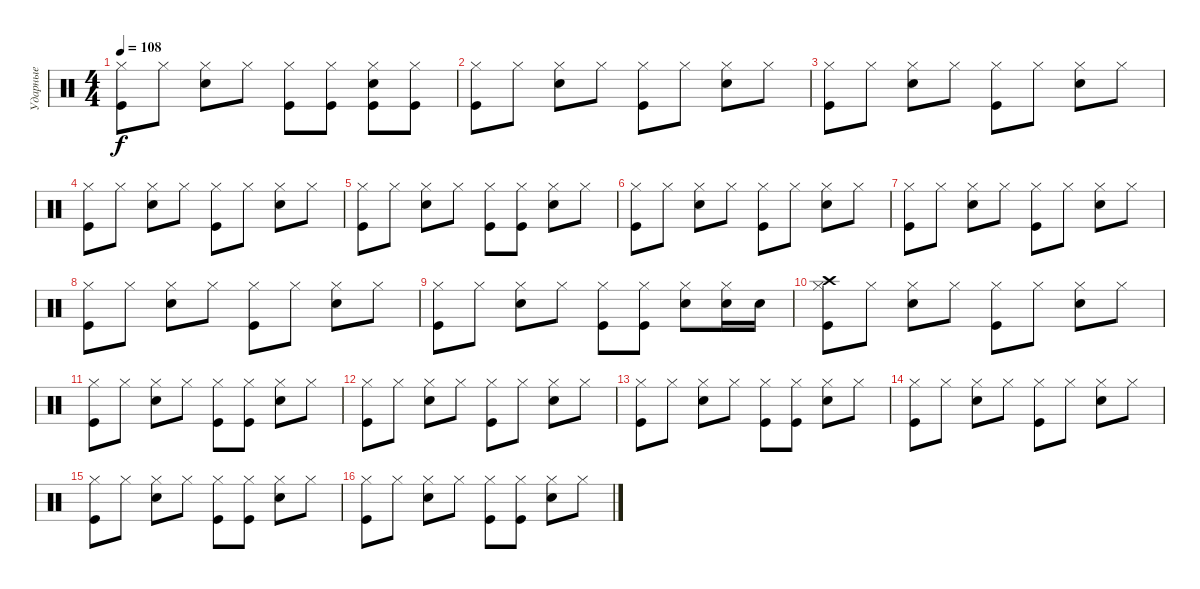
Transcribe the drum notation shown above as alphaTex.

\track ("Ударные" "Ударные") {instrument percussion}
\staff {score}
\articulation defaults
\ts (4 4)
\tempo 108
\clef neutral
\ks c
("Hi-Hat (closed)" "Kick (hit)").8{dy f} "Hi-Hat (closed)".8 ("Hi-Hat (closed)" "Snare (hit) 2").8 "Hi-Hat (closed)".8 ("Hi-Hat (closed)" "Kick (hit)").8 ("Hi-Hat (closed)" "Kick (hit)").8 ("Hi-Hat (closed)" "Snare (hit) 2" "Kick (hit)").8 ("Hi-Hat (closed)" "Kick (hit)").8 |
("Hi-Hat (closed)" "Kick (hit)").8 "Hi-Hat (closed)".8 ("Hi-Hat (closed)" "Snare (hit) 2").8 "Hi-Hat (closed)".8 ("Hi-Hat (closed)" "Kick (hit)").8 "Hi-Hat (closed)".8 ("Hi-Hat (closed)" "Snare (hit) 2").8 "Hi-Hat (closed)".8 |
("Hi-Hat (closed)" "Kick (hit)").8 "Hi-Hat (closed)".8 ("Hi-Hat (closed)" "Snare (hit) 2").8 "Hi-Hat (closed)".8 ("Hi-Hat (closed)" "Kick (hit)").8 "Hi-Hat (closed)".8 ("Hi-Hat (closed)" "Snare (hit) 2").8 "Hi-Hat (closed)".8 |
("Hi-Hat (closed)" "Kick (hit)").8 "Hi-Hat (closed)".8 ("Hi-Hat (closed)" "Snare (hit) 2").8 "Hi-Hat (closed)".8 ("Hi-Hat (closed)" "Kick (hit)").8 "Hi-Hat (closed)".8 ("Hi-Hat (closed)" "Snare (hit) 2").8 "Hi-Hat (closed)".8 |
("Hi-Hat (closed)" "Kick (hit)").8 "Hi-Hat (closed)".8 ("Hi-Hat (closed)" "Snare (hit) 2").8 "Hi-Hat (closed)".8 ("Hi-Hat (closed)" "Kick (hit)").8 ("Hi-Hat (closed)" "Kick (hit)").8 ("Hi-Hat (closed)" "Snare (hit) 2").8 "Hi-Hat (closed)".8 |
("Hi-Hat (closed)" "Kick (hit)").8 "Hi-Hat (closed)".8 ("Hi-Hat (closed)" "Snare (hit) 2").8 "Hi-Hat (closed)".8 ("Hi-Hat (closed)" "Kick (hit)").8 "Hi-Hat (closed)".8 ("Hi-Hat (closed)" "Snare (hit) 2").8 "Hi-Hat (closed)".8 |
("Hi-Hat (closed)" "Kick (hit)").8 "Hi-Hat (closed)".8 ("Hi-Hat (closed)" "Snare (hit) 2").8 "Hi-Hat (closed)".8 ("Hi-Hat (closed)" "Kick (hit)").8 "Hi-Hat (closed)".8 ("Hi-Hat (closed)" "Snare (hit) 2").8 "Hi-Hat (closed)".8 |
("Hi-Hat (closed)" "Kick (hit)").8 "Hi-Hat (closed)".8 ("Hi-Hat (closed)" "Snare (hit) 2").8 "Hi-Hat (closed)".8 ("Hi-Hat (closed)" "Kick (hit)").8 "Hi-Hat (closed)".8 ("Hi-Hat (closed)" "Snare (hit) 2").8 "Hi-Hat (closed)".8 |
("Hi-Hat (closed)" "Kick (hit)").8 "Hi-Hat (closed)".8 ("Hi-Hat (closed)" "Snare (hit) 2").8 "Hi-Hat (closed)".8 ("Hi-Hat (closed)" "Kick (hit)").8 ("Hi-Hat (closed)" "Kick (hit)").8 ("Hi-Hat (closed)" "Snare (hit) 2").8 ("Hi-Hat (closed)" "Snare (hit) 2").16 "Snare (hit) 2".16 |
("Hi-Hat (closed)" "Kick (hit)" "Crash high (hit)").8 "Hi-Hat (closed)".8 ("Hi-Hat (closed)" "Snare (hit) 2").8 "Hi-Hat (closed)".8 ("Hi-Hat (closed)" "Kick (hit)").8 "Hi-Hat (closed)".8 ("Hi-Hat (closed)" "Snare (hit) 2").8 "Hi-Hat (closed)".8 |
("Hi-Hat (closed)" "Kick (hit)").8 "Hi-Hat (closed)".8 ("Hi-Hat (closed)" "Snare (hit) 2").8 "Hi-Hat (closed)".8 ("Hi-Hat (closed)" "Kick (hit)").8 ("Hi-Hat (closed)" "Kick (hit)").8 ("Hi-Hat (closed)" "Snare (hit) 2").8 "Hi-Hat (closed)".8 |
("Hi-Hat (closed)" "Kick (hit)").8 "Hi-Hat (closed)".8 ("Hi-Hat (closed)" "Snare (hit) 2").8 "Hi-Hat (closed)".8 ("Hi-Hat (closed)" "Kick (hit)").8 "Hi-Hat (closed)".8 ("Hi-Hat (closed)" "Snare (hit) 2").8 "Hi-Hat (closed)".8 |
("Hi-Hat (closed)" "Kick (hit)").8 "Hi-Hat (closed)".8 ("Hi-Hat (closed)" "Snare (hit) 2").8 "Hi-Hat (closed)".8 ("Hi-Hat (closed)" "Kick (hit)").8 ("Hi-Hat (closed)" "Kick (hit)").8 ("Hi-Hat (closed)" "Snare (hit) 2").8 "Hi-Hat (closed)".8 |
("Hi-Hat (closed)" "Kick (hit)").8 "Hi-Hat (closed)".8 ("Hi-Hat (closed)" "Snare (hit) 2").8 "Hi-Hat (closed)".8 ("Hi-Hat (closed)" "Kick (hit)").8 "Hi-Hat (closed)".8 ("Hi-Hat (closed)" "Snare (hit) 2").8 "Hi-Hat (closed)".8 |
("Hi-Hat (closed)" "Kick (hit)").8 "Hi-Hat (closed)".8 ("Hi-Hat (closed)" "Snare (hit) 2").8 "Hi-Hat (closed)".8 ("Hi-Hat (closed)" "Kick (hit)").8 ("Hi-Hat (closed)" "Kick (hit)").8 ("Hi-Hat (closed)" "Snare (hit) 2").8 "Hi-Hat (closed)".8 |
("Hi-Hat (closed)" "Kick (hit)").8 "Hi-Hat (closed)".8 ("Hi-Hat (closed)" "Snare (hit) 2").8 "Hi-Hat (closed)".8 ("Hi-Hat (closed)" "Kick (hit)").8 ("Hi-Hat (closed)" "Kick (hit)").8 ("Hi-Hat (closed)" "Snare (hit) 2").8 "Hi-Hat (closed)".8
